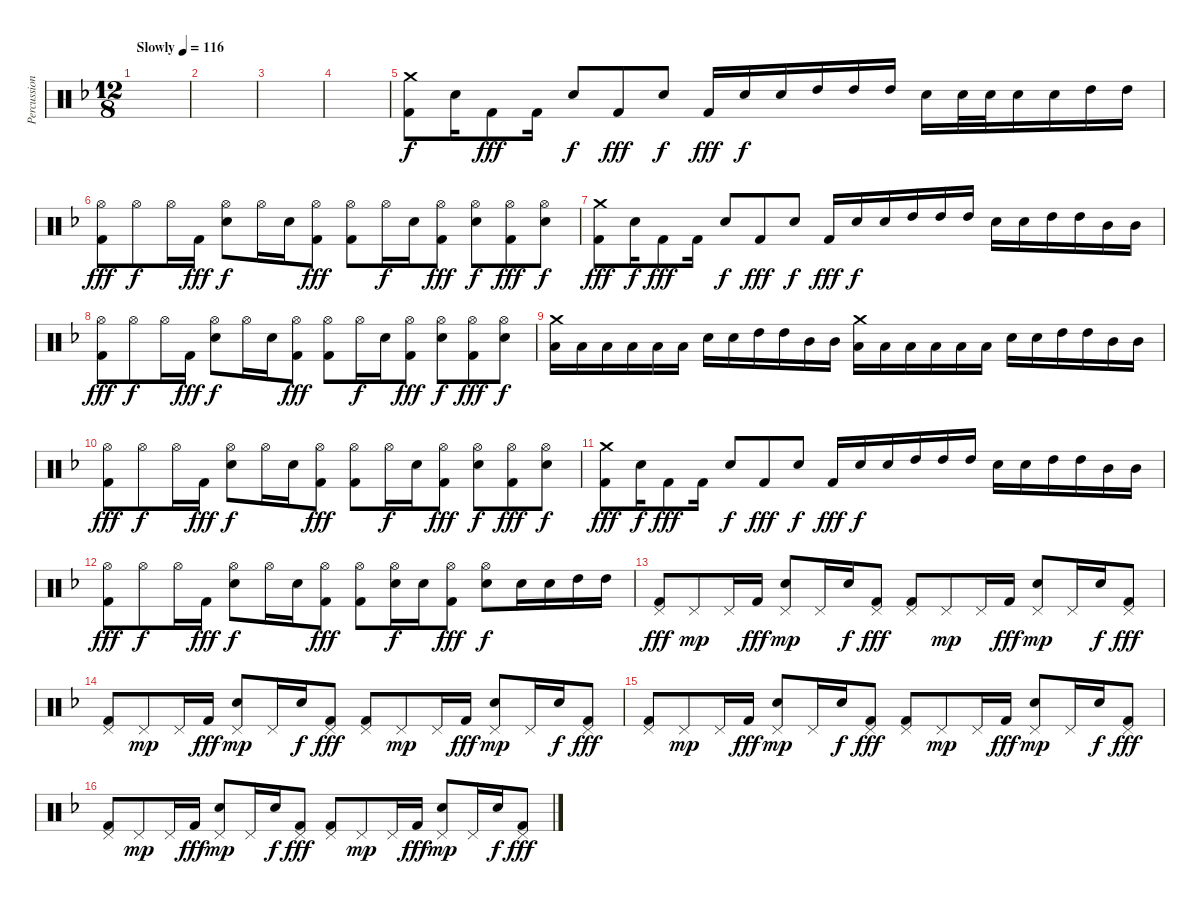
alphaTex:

\track ("Percussions" "Percussion") {instrument percussion}
\staff {score}
\articulation defaults
\ts (12 8)
\tempo (116 "Slowly")
\clef neutral
\ks f
|
|
|
|
("Crash medium (hit)" "Kick (hit) 2").8 "Snare (hit) 2".16{dy f} "Kick (hit) 2".8{dy fff} "Kick (hit) 2".16 "Snare (hit) 2".8{dy f} "Kick (hit) 2".8{dy fff} "Snare (hit) 2".8{dy f} "Kick (hit) 2".16{dy fff} "Snare (hit) 2".16{dy f} "Snare (hit) 2".16 "High Tom (hit)".16 "High Tom (hit)".16 "High Tom (hit)".16 "Snare (hit) 2".16 "Snare (hit) 2".32 "Snare (hit) 2".32 "Snare (hit) 2".16 "Snare (hit) 2".16 "High Tom (hit)".16 "High Tom (hit)".16 |
("Hi-Hat (open)" "Kick (hit) 2").8{dy fff} "Hi-Hat (open)".8{dy f} "Hi-Hat (open)".16 "Kick (hit) 2".16{dy fff} ("Hi-Hat (open)" "Snare (hit) 2").8{dy f} "Hi-Hat (open)".16 "Snare (hit) 2".16 ("Hi-Hat (open)" "Kick (hit) 2").8{dy fff} ("Hi-Hat (open)" "Kick (hit) 2").8 "Hi-Hat (open)".16{dy f} "Snare (hit) 2".16 ("Hi-Hat (open)" "Kick (hit) 2").8{dy fff} ("Hi-Hat (open)" "Snare (hit) 2").8{dy f} ("Hi-Hat (open)" "Kick (hit) 2").8{dy fff} ("Hi-Hat (open)" "Snare (hit) 2").8{dy f} |
("Crash medium (hit)" "Kick (hit) 2").8{dy fff} "Snare (hit) 2".16{dy f} "Kick (hit) 2".8{dy fff} "Kick (hit) 2".16 "Snare (hit) 2".8{dy f} "Kick (hit) 2".8{dy fff} "Snare (hit) 2".8{dy f} "Kick (hit) 2".16{dy fff} "Snare (hit) 2".16{dy f} "Snare (hit) 2".16 "High Tom (hit)".16 "High Tom (hit)".16 "High Tom (hit)".16 "Snare (hit) 2".16 "Snare (hit) 2".16 "High Tom (hit)".16 "High Tom (hit)".16 "Mid Tom (hit)".16 "Mid Tom (hit)".16 |
("Hi-Hat (open)" "Kick (hit) 2").8{dy fff} "Hi-Hat (open)".8{dy f} "Hi-Hat (open)".16 "Kick (hit) 2".16{dy fff} ("Hi-Hat (open)" "Snare (hit) 2").8{dy f} "Hi-Hat (open)".16 "Snare (hit) 2".16 ("Hi-Hat (open)" "Kick (hit) 2").8{dy fff} ("Hi-Hat (open)" "Kick (hit) 2").8 "Hi-Hat (open)".16{dy f} "Snare (hit) 2".16 ("Hi-Hat (open)" "Kick (hit) 2").8{dy fff} ("Hi-Hat (open)" "Snare (hit) 2").8{dy f} ("Hi-Hat (open)" "Kick (hit) 2").8{dy fff} ("Hi-Hat (open)" "Snare (hit) 2").8{dy f} |
("Crash medium (hit)" "Low Tom (hit)").16 "Low Tom (hit)".16 "Low Tom (hit)".16 "Low Tom (hit)".16 "Low Tom (hit)".16 "Low Tom (hit)".16 "Snare (hit) 2".16 "Snare (hit) 2".16 "High Tom (hit)".16 "High Tom (hit)".16 "Mid Tom (hit)".16 "Mid Tom (hit)".16 ("Crash medium (hit)" "Low Tom (hit)").16 "Low Tom (hit)".16 "Low Tom (hit)".16 "Low Tom (hit)".16 "Low Tom (hit)".16 "Low Tom (hit)".16 "Snare (hit) 2".16 "Snare (hit) 2".16 "High Tom (hit)".16 "High Tom (hit)".16 "Mid Tom (hit)".16 "Mid Tom (hit)".16 |
("Hi-Hat (open)" "Kick (hit) 2").8{dy fff} "Hi-Hat (open)".8{dy f} "Hi-Hat (open)".16 "Kick (hit) 2".16{dy fff} ("Hi-Hat (open)" "Snare (hit) 2").8{dy f} "Hi-Hat (open)".16 "Snare (hit) 2".16 ("Hi-Hat (open)" "Kick (hit) 2").8{dy fff} ("Hi-Hat (open)" "Kick (hit) 2").8 "Hi-Hat (open)".16{dy f} "Snare (hit) 2".16 ("Hi-Hat (open)" "Kick (hit) 2").8{dy fff} ("Hi-Hat (open)" "Snare (hit) 2").8{dy f} ("Hi-Hat (open)" "Kick (hit) 2").8{dy fff} ("Hi-Hat (open)" "Snare (hit) 2").8{dy f} |
("Crash medium (hit)" "Kick (hit) 2").8{dy fff} "Snare (hit) 2".16{dy f} "Kick (hit) 2".8{dy fff} "Kick (hit) 2".16 "Snare (hit) 2".8{dy f} "Kick (hit) 2".8{dy fff} "Snare (hit) 2".8{dy f} "Kick (hit) 2".16{dy fff} "Snare (hit) 2".16{dy f} "Snare (hit) 2".16 "High Tom (hit)".16 "High Tom (hit)".16 "High Tom (hit)".16 "Snare (hit) 2".16 "Snare (hit) 2".16 "High Tom (hit)".16 "High Tom (hit)".16 "Mid Tom (hit)".16 "Mid Tom (hit)".16 |
("Hi-Hat (open)" "Kick (hit) 2").8{dy fff} "Hi-Hat (open)".8{dy f} "Hi-Hat (open)".16 "Kick (hit) 2".16{dy fff} ("Hi-Hat (open)" "Snare (hit) 2").8{dy f} "Hi-Hat (open)".16 "Snare (hit) 2".16 ("Hi-Hat (open)" "Kick (hit) 2").8{dy fff} ("Hi-Hat (open)" "Kick (hit) 2").8 ("Hi-Hat (open)" "Snare (hit) 2").16{dy f} "Snare (hit) 2".16 ("Hi-Hat (open)" "Kick (hit) 2").8{dy fff} ("Hi-Hat (open)" "Snare (hit) 2").8{dy f} "Snare (hit) 2".16 "Snare (hit) 2".16 "High Tom (hit)".16 "High Tom (hit)".16 |
("Pedal Hi-Hat (hit)" "Kick (hit) 2").8{dy fff} "Pedal Hi-Hat (hit)".8{dy mp} "Pedal Hi-Hat (hit)".16 "Kick (hit) 2".16{dy fff} ("Pedal Hi-Hat (hit)" "Snare (hit) 2").8{dy mp} "Pedal Hi-Hat (hit)".16 "Snare (hit) 2".16{dy f} ("Pedal Hi-Hat (hit)" "Kick (hit) 2").8{dy fff} ("Pedal Hi-Hat (hit)" "Kick (hit) 2").8 "Pedal Hi-Hat (hit)".8{dy mp} "Pedal Hi-Hat (hit)".16 "Kick (hit) 2".16{dy fff} ("Pedal Hi-Hat (hit)" "Snare (hit) 2").8{dy mp} "Pedal Hi-Hat (hit)".16 "Snare (hit) 2".16{dy f} ("Pedal Hi-Hat (hit)" "Kick (hit) 2").8{dy fff} |
("Pedal Hi-Hat (hit)" "Kick (hit) 2").8 "Pedal Hi-Hat (hit)".8{dy mp} "Pedal Hi-Hat (hit)".16 "Kick (hit) 2".16{dy fff} ("Pedal Hi-Hat (hit)" "Snare (hit) 2").8{dy mp} "Pedal Hi-Hat (hit)".16 "Snare (hit) 2".16{dy f} ("Pedal Hi-Hat (hit)" "Kick (hit) 2").8{dy fff} ("Pedal Hi-Hat (hit)" "Kick (hit) 2").8 "Pedal Hi-Hat (hit)".8{dy mp} "Pedal Hi-Hat (hit)".16 "Kick (hit) 2".16{dy fff} ("Pedal Hi-Hat (hit)" "Snare (hit) 2").8{dy mp} "Pedal Hi-Hat (hit)".16 "Snare (hit) 2".16{dy f} ("Pedal Hi-Hat (hit)" "Kick (hit) 2").8{dy fff} |
("Pedal Hi-Hat (hit)" "Kick (hit) 2").8 "Pedal Hi-Hat (hit)".8{dy mp} "Pedal Hi-Hat (hit)".16 "Kick (hit) 2".16{dy fff} ("Pedal Hi-Hat (hit)" "Snare (hit) 2").8{dy mp} "Pedal Hi-Hat (hit)".16 "Snare (hit) 2".16{dy f} ("Pedal Hi-Hat (hit)" "Kick (hit) 2").8{dy fff} ("Pedal Hi-Hat (hit)" "Kick (hit) 2").8 "Pedal Hi-Hat (hit)".8{dy mp} "Pedal Hi-Hat (hit)".16 "Kick (hit) 2".16{dy fff} ("Pedal Hi-Hat (hit)" "Snare (hit) 2").8{dy mp} "Pedal Hi-Hat (hit)".16 "Snare (hit) 2".16{dy f} ("Pedal Hi-Hat (hit)" "Kick (hit) 2").8{dy fff} |
("Pedal Hi-Hat (hit)" "Kick (hit) 2").8 "Pedal Hi-Hat (hit)".8{dy mp} "Pedal Hi-Hat (hit)".16 "Kick (hit) 2".16{dy fff} ("Pedal Hi-Hat (hit)" "Snare (hit) 2").8{dy mp} "Pedal Hi-Hat (hit)".16 "Snare (hit) 2".16{dy f} ("Pedal Hi-Hat (hit)" "Kick (hit) 2").8{dy fff} ("Pedal Hi-Hat (hit)" "Kick (hit) 2").8 "Pedal Hi-Hat (hit)".8{dy mp} "Pedal Hi-Hat (hit)".16 "Kick (hit) 2".16{dy fff} ("Pedal Hi-Hat (hit)" "Snare (hit) 2").8{dy mp} "Pedal Hi-Hat (hit)".16 "Snare (hit) 2".16{dy f} ("Pedal Hi-Hat (hit)" "Kick (hit) 2").8{dy fff}
